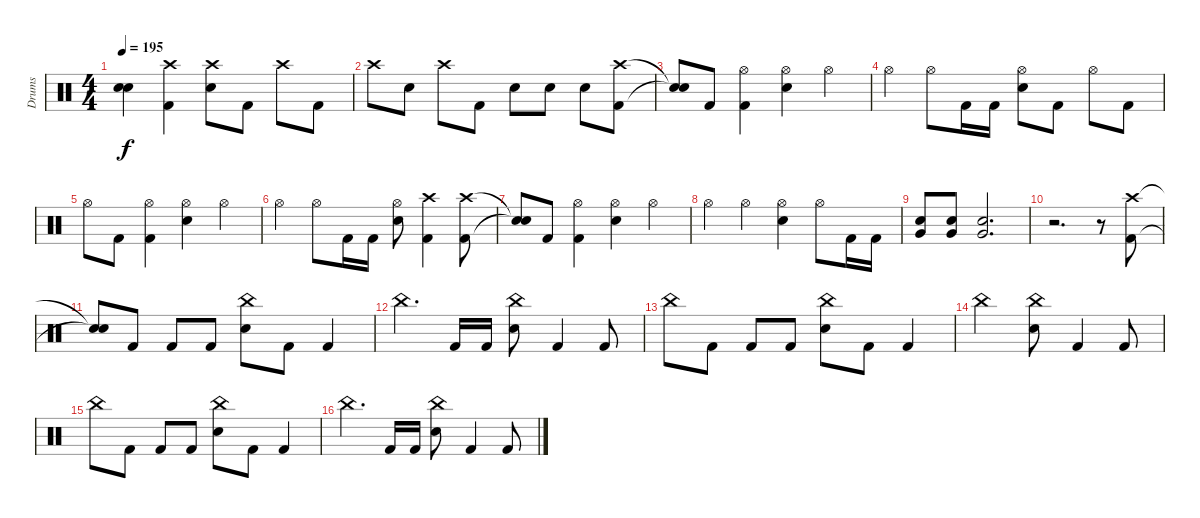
\track ("Drums" "Drums") {instrument percussion}
\staff {score}
\articulation defaults
\ts (4 4)
\tempo 195
\clef neutral
\ks c
("Snare (hit)"{t} "Snare (hit)"{t}).4{dy f} ("Crash high (hit)" "Kick (hit) 2").4 ("Crash high (hit)" "Electric Snare (hit)").8 "Kick (hit) 2".8 "Crash high (hit)".8 "Kick (hit) 2".8 |
"Crash high (hit)".8 "Electric Snare (hit)".8 "Crash high (hit)".8 "Kick (hit) 2".8 "Electric Snare (hit)".8 "Electric Snare (hit)".8 "Electric Snare (hit)".8 ("Crash high (hit)" "Kick (hit) 2").8 |
("Snare (hit)"{t} "Snare (hit)"{t}).8 "Kick (hit) 2".8 ("Hi-Hat (open)" "Kick (hit) 2").4 ("Hi-Hat (open)" "Electric Snare (hit)").4 "Hi-Hat (open)".4 |
"Hi-Hat (open)".4 "Hi-Hat (open)".8 "Kick (hit) 2".16 "Kick (hit) 2".16 ("Hi-Hat (open)" "Electric Snare (hit)").8 "Kick (hit) 2".8 "Hi-Hat (open)".8 "Kick (hit) 2".8 |
"Hi-Hat (open)".8 "Kick (hit) 2".8 ("Hi-Hat (open)" "Kick (hit) 2").4 ("Hi-Hat (open)" "Electric Snare (hit)").4 "Hi-Hat (open)".4 |
"Hi-Hat (open)".4 "Hi-Hat (open)".8 "Kick (hit) 2".16 "Kick (hit) 2".16 ("Hi-Hat (open)" "Electric Snare (hit)").8 ("Crash high (hit)" "Kick (hit) 2").4 ("Crash high (hit)" "Kick (hit) 2").8 |
("Snare (hit)"{t} "Snare (hit)"{t}).8 "Kick (hit) 2".8 ("Hi-Hat (open)" "Kick (hit) 2").4 ("Hi-Hat (open)" "Electric Snare (hit)").4 "Hi-Hat (open)".4 |
"Hi-Hat (open)".4 "Hi-Hat (open)".4 ("Hi-Hat (open)" "Electric Snare (hit)").4 "Hi-Hat (open)".8 "Kick (hit) 2".16 "Kick (hit) 2".16 |
("Very Low Tom (hit)" "Electric Snare (hit)").8 ("Very Low Tom (hit)" "Electric Snare (hit)").8 ("Very Low Tom (hit)" "Electric Snare (hit)").2{d} |
r.2{d} r.8 ("Crash high (hit)" "Kick (hit) 2").8 |
("Snare (hit)"{t} "Snare (hit)"{t}).8 "Kick (hit) 2".8 "Kick (hit) 2".8 "Kick (hit) 2".8 ("China (hit)" "Electric Snare (hit)").8 "Kick (hit) 2".8 "Kick (hit) 2".4 |
"China (hit)".4{d} "Kick (hit) 2".16 "Kick (hit) 2".16 ("China (hit)" "Electric Snare (hit)").8 "Kick (hit) 2".4 "Kick (hit) 2".8 |
"China (hit)".8 "Kick (hit) 2".8 "Kick (hit) 2".8 "Kick (hit) 2".8 ("China (hit)" "Electric Snare (hit)").8 "Kick (hit) 2".8 "Kick (hit) 2".4 |
"China (hit)".2 ("China (hit)" "Electric Snare (hit)").8 "Kick (hit) 2".4 "Kick (hit) 2".8 |
"China (hit)".8 "Kick (hit) 2".8 "Kick (hit) 2".8 "Kick (hit) 2".8 ("China (hit)" "Electric Snare (hit)").8 "Kick (hit) 2".8 "Kick (hit) 2".4 |
"China (hit)".4{d} "Kick (hit) 2".16 "Kick (hit) 2".16 ("China (hit)" "Electric Snare (hit)").8 "Kick (hit) 2".4 "Kick (hit) 2".8
